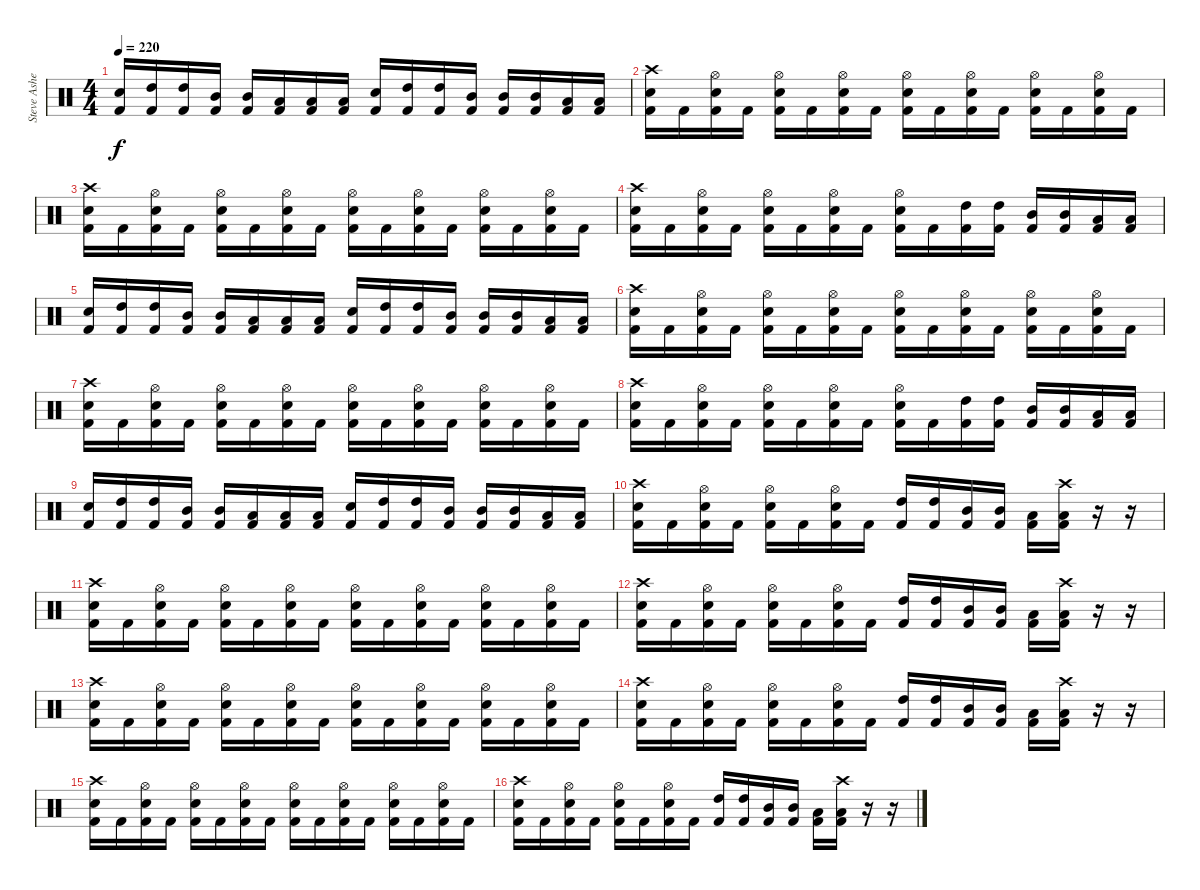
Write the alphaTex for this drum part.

\track ("Steve Asheim" "Steve Ashe") {instrument percussion}
\staff {score}
\articulation defaults
\ts (4 4)
\tempo 220
\clef neutral
\ks c
("Electric Snare (hit)" "Kick (hit) 2").16{dy f} ("High Tom (hit)" "Kick (hit) 2").16 ("High Tom (hit)" "Kick (hit) 2").16 ("Mid Tom (hit)" "Kick (hit) 2").16 ("Mid Tom (hit)" "Kick (hit) 2").16 ("Low Tom (hit)" "Kick (hit) 2").16 ("Low Tom (hit)" "Kick (hit) 2").16 ("Low Tom (hit)" "Kick (hit) 2").16 ("Electric Snare (hit)" "Kick (hit) 2").16 ("High Tom (hit)" "Kick (hit) 2").16 ("High Tom (hit)" "Kick (hit) 2").16 ("Mid Tom (hit)" "Kick (hit) 2").16 ("Mid Tom (hit)" "Kick (hit) 2").16 ("Mid Tom (hit)" "Kick (hit) 2").16 ("Low Tom (hit)" "Kick (hit) 2").16 ("Low Tom (hit)" "Kick (hit) 2").16 |
("Crash high (hit)" "Electric Snare (hit)" "Kick (hit) 2").16 "Kick (hit) 2".16 ("Hi-Hat (open)" "Electric Snare (hit)" "Kick (hit) 2").16 "Kick (hit) 2".16 ("Hi-Hat (open)" "Electric Snare (hit)" "Kick (hit) 2").16 "Kick (hit) 2".16 ("Hi-Hat (open)" "Electric Snare (hit)" "Kick (hit) 2").16 "Kick (hit) 2".16 ("Hi-Hat (open)" "Electric Snare (hit)" "Kick (hit) 2").16 "Kick (hit) 2".16 ("Hi-Hat (open)" "Electric Snare (hit)" "Kick (hit) 2").16 "Kick (hit) 2".16 ("Hi-Hat (open)" "Electric Snare (hit)" "Kick (hit) 2").16 "Kick (hit) 2".16 ("Hi-Hat (open)" "Electric Snare (hit)" "Kick (hit) 2").16 "Kick (hit) 2".16 |
("Crash high (hit)" "Electric Snare (hit)" "Kick (hit) 2").16 "Kick (hit) 2".16 ("Hi-Hat (open)" "Electric Snare (hit)" "Kick (hit) 2").16 "Kick (hit) 2".16 ("Hi-Hat (open)" "Electric Snare (hit)" "Kick (hit) 2").16 "Kick (hit) 2".16 ("Hi-Hat (open)" "Electric Snare (hit)" "Kick (hit) 2").16 "Kick (hit) 2".16 ("Hi-Hat (open)" "Electric Snare (hit)" "Kick (hit) 2").16 "Kick (hit) 2".16 ("Hi-Hat (open)" "Electric Snare (hit)" "Kick (hit) 2").16 "Kick (hit) 2".16 ("Hi-Hat (open)" "Electric Snare (hit)" "Kick (hit) 2").16 "Kick (hit) 2".16 ("Hi-Hat (open)" "Electric Snare (hit)" "Kick (hit) 2").16 "Kick (hit) 2".16 |
("Crash high (hit)" "Electric Snare (hit)" "Kick (hit) 2").16 "Kick (hit) 2".16 ("Hi-Hat (open)" "Electric Snare (hit)" "Kick (hit) 2").16 "Kick (hit) 2".16 ("Hi-Hat (open)" "Electric Snare (hit)" "Kick (hit) 2").16 "Kick (hit) 2".16 ("Hi-Hat (open)" "Electric Snare (hit)" "Kick (hit) 2").16 "Kick (hit) 2".16 ("Hi-Hat (open)" "Electric Snare (hit)" "Kick (hit) 2").16 "Kick (hit) 2".16 ("High Tom (hit)" "Kick (hit) 2").16 ("High Tom (hit)" "Kick (hit) 2").16 ("Mid Tom (hit)" "Kick (hit) 2").16 ("Mid Tom (hit)" "Kick (hit) 2").16 ("Low Tom (hit)" "Kick (hit) 2").16 ("Low Tom (hit)" "Kick (hit) 2").16 |
("Electric Snare (hit)" "Kick (hit) 2").16 ("High Tom (hit)" "Kick (hit) 2").16 ("High Tom (hit)" "Kick (hit) 2").16 ("Mid Tom (hit)" "Kick (hit) 2").16 ("Mid Tom (hit)" "Kick (hit) 2").16 ("Low Tom (hit)" "Kick (hit) 2").16 ("Low Tom (hit)" "Kick (hit) 2").16 ("Low Tom (hit)" "Kick (hit) 2").16 ("Electric Snare (hit)" "Kick (hit) 2").16 ("High Tom (hit)" "Kick (hit) 2").16 ("High Tom (hit)" "Kick (hit) 2").16 ("Mid Tom (hit)" "Kick (hit) 2").16 ("Mid Tom (hit)" "Kick (hit) 2").16 ("Mid Tom (hit)" "Kick (hit) 2").16 ("Low Tom (hit)" "Kick (hit) 2").16 ("Low Tom (hit)" "Kick (hit) 2").16 |
("Crash high (hit)" "Electric Snare (hit)" "Kick (hit) 2").16 "Kick (hit) 2".16 ("Hi-Hat (open)" "Electric Snare (hit)" "Kick (hit) 2").16 "Kick (hit) 2".16 ("Hi-Hat (open)" "Electric Snare (hit)" "Kick (hit) 2").16 "Kick (hit) 2".16 ("Hi-Hat (open)" "Electric Snare (hit)" "Kick (hit) 2").16 "Kick (hit) 2".16 ("Hi-Hat (open)" "Electric Snare (hit)" "Kick (hit) 2").16 "Kick (hit) 2".16 ("Hi-Hat (open)" "Electric Snare (hit)" "Kick (hit) 2").16 "Kick (hit) 2".16 ("Hi-Hat (open)" "Electric Snare (hit)" "Kick (hit) 2").16 "Kick (hit) 2".16 ("Hi-Hat (open)" "Electric Snare (hit)" "Kick (hit) 2").16 "Kick (hit) 2".16 |
("Crash high (hit)" "Electric Snare (hit)" "Kick (hit) 2").16 "Kick (hit) 2".16 ("Hi-Hat (open)" "Electric Snare (hit)" "Kick (hit) 2").16 "Kick (hit) 2".16 ("Hi-Hat (open)" "Electric Snare (hit)" "Kick (hit) 2").16 "Kick (hit) 2".16 ("Hi-Hat (open)" "Electric Snare (hit)" "Kick (hit) 2").16 "Kick (hit) 2".16 ("Hi-Hat (open)" "Electric Snare (hit)" "Kick (hit) 2").16 "Kick (hit) 2".16 ("Hi-Hat (open)" "Electric Snare (hit)" "Kick (hit) 2").16 "Kick (hit) 2".16 ("Hi-Hat (open)" "Electric Snare (hit)" "Kick (hit) 2").16 "Kick (hit) 2".16 ("Hi-Hat (open)" "Electric Snare (hit)" "Kick (hit) 2").16 "Kick (hit) 2".16 |
("Crash high (hit)" "Electric Snare (hit)" "Kick (hit) 2").16 "Kick (hit) 2".16 ("Hi-Hat (open)" "Electric Snare (hit)" "Kick (hit) 2").16 "Kick (hit) 2".16 ("Hi-Hat (open)" "Electric Snare (hit)" "Kick (hit) 2").16 "Kick (hit) 2".16 ("Hi-Hat (open)" "Electric Snare (hit)" "Kick (hit) 2").16 "Kick (hit) 2".16 ("Hi-Hat (open)" "Electric Snare (hit)" "Kick (hit) 2").16 "Kick (hit) 2".16 ("High Tom (hit)" "Kick (hit) 2").16 ("High Tom (hit)" "Kick (hit) 2").16 ("Mid Tom (hit)" "Kick (hit) 2").16 ("Mid Tom (hit)" "Kick (hit) 2").16 ("Low Tom (hit)" "Kick (hit) 2").16 ("Low Tom (hit)" "Kick (hit) 2").16 |
("Electric Snare (hit)" "Kick (hit) 2").16 ("High Tom (hit)" "Kick (hit) 2").16 ("High Tom (hit)" "Kick (hit) 2").16 ("Mid Tom (hit)" "Kick (hit) 2").16 ("Mid Tom (hit)" "Kick (hit) 2").16 ("Low Tom (hit)" "Kick (hit) 2").16 ("Low Tom (hit)" "Kick (hit) 2").16 ("Low Tom (hit)" "Kick (hit) 2").16 ("Electric Snare (hit)" "Kick (hit) 2").16 ("High Tom (hit)" "Kick (hit) 2").16 ("High Tom (hit)" "Kick (hit) 2").16 ("Mid Tom (hit)" "Kick (hit) 2").16 ("Mid Tom (hit)" "Kick (hit) 2").16 ("Mid Tom (hit)" "Kick (hit) 2").16 ("Low Tom (hit)" "Kick (hit) 2").16 ("Low Tom (hit)" "Kick (hit) 2").16 |
("Crash high (hit)" "Electric Snare (hit)" "Kick (hit) 2").16 "Kick (hit) 2".16 ("Hi-Hat (open)" "Electric Snare (hit)" "Kick (hit) 2").16 "Kick (hit) 2".16 ("Hi-Hat (open)" "Electric Snare (hit)" "Kick (hit) 2").16 "Kick (hit) 2".16 ("Hi-Hat (open)" "Electric Snare (hit)" "Kick (hit) 2").16 "Kick (hit) 2".16 ("High Tom (hit)" "Kick (hit) 2").16 ("High Tom (hit)" "Kick (hit) 2").16 ("Mid Tom (hit)" "Kick (hit) 2").16 ("Mid Tom (hit)" "Kick (hit) 2").16 ("Low Tom (hit)" "Kick (hit) 2").16 ("Crash high (hit)" "Low Tom (hit)" "Kick (hit) 2").16 r.16 r.16 |
("Crash high (hit)" "Electric Snare (hit)" "Kick (hit) 2").16 "Kick (hit) 2".16 ("Hi-Hat (open)" "Electric Snare (hit)" "Kick (hit) 2").16 "Kick (hit) 2".16 ("Hi-Hat (open)" "Electric Snare (hit)" "Kick (hit) 2").16 "Kick (hit) 2".16 ("Hi-Hat (open)" "Electric Snare (hit)" "Kick (hit) 2").16 "Kick (hit) 2".16 ("Hi-Hat (open)" "Electric Snare (hit)" "Kick (hit) 2").16 "Kick (hit) 2".16 ("Hi-Hat (open)" "Electric Snare (hit)" "Kick (hit) 2").16 "Kick (hit) 2".16 ("Hi-Hat (open)" "Electric Snare (hit)" "Kick (hit) 2").16 "Kick (hit) 2".16 ("Hi-Hat (open)" "Electric Snare (hit)" "Kick (hit) 2").16 "Kick (hit) 2".16 |
("Crash high (hit)" "Electric Snare (hit)" "Kick (hit) 2").16 "Kick (hit) 2".16 ("Hi-Hat (open)" "Electric Snare (hit)" "Kick (hit) 2").16 "Kick (hit) 2".16 ("Hi-Hat (open)" "Electric Snare (hit)" "Kick (hit) 2").16 "Kick (hit) 2".16 ("Hi-Hat (open)" "Electric Snare (hit)" "Kick (hit) 2").16 "Kick (hit) 2".16 ("High Tom (hit)" "Kick (hit) 2").16 ("High Tom (hit)" "Kick (hit) 2").16 ("Mid Tom (hit)" "Kick (hit) 2").16 ("Mid Tom (hit)" "Kick (hit) 2").16 ("Low Tom (hit)" "Kick (hit) 2").16 ("Crash high (hit)" "Low Tom (hit)" "Kick (hit) 2").16 r.16 r.16 |
("Crash high (hit)" "Electric Snare (hit)" "Kick (hit) 2").16 "Kick (hit) 2".16 ("Hi-Hat (open)" "Electric Snare (hit)" "Kick (hit) 2").16 "Kick (hit) 2".16 ("Hi-Hat (open)" "Electric Snare (hit)" "Kick (hit) 2").16 "Kick (hit) 2".16 ("Hi-Hat (open)" "Electric Snare (hit)" "Kick (hit) 2").16 "Kick (hit) 2".16 ("Hi-Hat (open)" "Electric Snare (hit)" "Kick (hit) 2").16 "Kick (hit) 2".16 ("Hi-Hat (open)" "Electric Snare (hit)" "Kick (hit) 2").16 "Kick (hit) 2".16 ("Hi-Hat (open)" "Electric Snare (hit)" "Kick (hit) 2").16 "Kick (hit) 2".16 ("Hi-Hat (open)" "Electric Snare (hit)" "Kick (hit) 2").16 "Kick (hit) 2".16 |
("Crash high (hit)" "Electric Snare (hit)" "Kick (hit) 2").16 "Kick (hit) 2".16 ("Hi-Hat (open)" "Electric Snare (hit)" "Kick (hit) 2").16 "Kick (hit) 2".16 ("Hi-Hat (open)" "Electric Snare (hit)" "Kick (hit) 2").16 "Kick (hit) 2".16 ("Hi-Hat (open)" "Electric Snare (hit)" "Kick (hit) 2").16 "Kick (hit) 2".16 ("High Tom (hit)" "Kick (hit) 2").16 ("High Tom (hit)" "Kick (hit) 2").16 ("Mid Tom (hit)" "Kick (hit) 2").16 ("Mid Tom (hit)" "Kick (hit) 2").16 ("Low Tom (hit)" "Kick (hit) 2").16 ("Crash high (hit)" "Low Tom (hit)" "Kick (hit) 2").16 r.16 r.16 |
("Crash high (hit)" "Electric Snare (hit)" "Kick (hit) 2").16 "Kick (hit) 2".16 ("Hi-Hat (open)" "Electric Snare (hit)" "Kick (hit) 2").16 "Kick (hit) 2".16 ("Hi-Hat (open)" "Electric Snare (hit)" "Kick (hit) 2").16 "Kick (hit) 2".16 ("Hi-Hat (open)" "Electric Snare (hit)" "Kick (hit) 2").16 "Kick (hit) 2".16 ("Hi-Hat (open)" "Electric Snare (hit)" "Kick (hit) 2").16 "Kick (hit) 2".16 ("Hi-Hat (open)" "Electric Snare (hit)" "Kick (hit) 2").16 "Kick (hit) 2".16 ("Hi-Hat (open)" "Electric Snare (hit)" "Kick (hit) 2").16 "Kick (hit) 2".16 ("Hi-Hat (open)" "Electric Snare (hit)" "Kick (hit) 2").16 "Kick (hit) 2".16 |
("Crash high (hit)" "Electric Snare (hit)" "Kick (hit) 2").16 "Kick (hit) 2".16 ("Hi-Hat (open)" "Electric Snare (hit)" "Kick (hit) 2").16 "Kick (hit) 2".16 ("Hi-Hat (open)" "Electric Snare (hit)" "Kick (hit) 2").16 "Kick (hit) 2".16 ("Hi-Hat (open)" "Electric Snare (hit)" "Kick (hit) 2").16 "Kick (hit) 2".16 ("High Tom (hit)" "Kick (hit) 2").16 ("High Tom (hit)" "Kick (hit) 2").16 ("Mid Tom (hit)" "Kick (hit) 2").16 ("Mid Tom (hit)" "Kick (hit) 2").16 ("Low Tom (hit)" "Kick (hit) 2").16 ("Crash high (hit)" "Low Tom (hit)" "Kick (hit) 2").16 r.16 r.16
